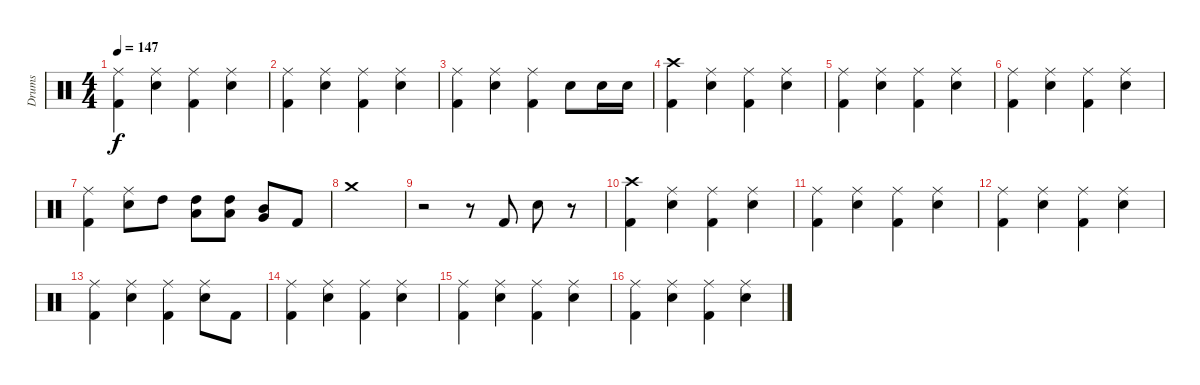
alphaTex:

\track ("Drums" "Drums") {instrument percussion}
\staff {score}
\articulation defaults
\ts (4 4)
\tempo 147
\clef neutral
\ks c
("Ride (middle)" "Kick (hit) 2").4{dy f} ("Ride (middle)" "Snare (hit) 2").4 ("Ride (middle)" "Kick (hit) 2").4 ("Ride (middle)" "Snare (hit) 2").4 |
("Ride (middle)" "Kick (hit) 2").4 ("Ride (middle)" "Snare (hit) 2").4 ("Ride (middle)" "Kick (hit) 2").4 ("Ride (middle)" "Snare (hit) 2").4 |
("Ride (middle)" "Kick (hit) 2").4 ("Ride (middle)" "Snare (hit) 2").4 ("Ride (middle)" "Kick (hit) 2").4 "Snare (hit) 2".8 "Snare (hit) 2".16 "Snare (hit) 2".16 |
("Crash high (hit)" "Kick (hit) 2").4 ("Ride (middle)" "Snare (hit) 2").4 ("Ride (middle)" "Kick (hit) 2").4 ("Ride (middle)" "Snare (hit) 2").4 |
("Ride (middle)" "Kick (hit) 2").4 ("Ride (middle)" "Snare (hit) 2").4 ("Ride (middle)" "Kick (hit) 2").4 ("Ride (middle)" "Snare (hit) 2").4 |
("Ride (middle)" "Kick (hit) 2").4 ("Ride (middle)" "Snare (hit) 2").4 ("Ride (middle)" "Kick (hit) 2").4 ("Ride (middle)" "Snare (hit) 2").4 |
("Ride (middle)" "Kick (hit) 2").4 ("Ride (middle)" "Snare (hit) 2").8 "High Tom (hit)".8 ("High Tom (hit)" "Low Tom (hit)").8 ("High Tom (hit)" "Low Tom (hit)").8 ("Mid Tom (hit)" "Very Low Tom (hit)").8 "Kick (hit) 2".8 |
"Crash medium (hit)".1 |
r.2 r.8 "Kick (hit) 2".8 "Snare (hit) 2".8 r.8 |
("Crash high (hit)" "Kick (hit) 2").4 ("Ride (middle)" "Snare (hit) 2").4 ("Ride (middle)" "Kick (hit) 2").4 ("Ride (middle)" "Snare (hit) 2").4 |
("Ride (middle)" "Kick (hit) 2").4 ("Ride (middle)" "Snare (hit) 2").4 ("Ride (middle)" "Kick (hit) 2").4 ("Ride (middle)" "Snare (hit) 2").4 |
("Ride (middle)" "Kick (hit) 2").4 ("Ride (middle)" "Snare (hit) 2").4 ("Ride (middle)" "Kick (hit) 2").4 ("Ride (middle)" "Snare (hit) 2").4 |
("Ride (middle)" "Kick (hit) 2").4 ("Ride (middle)" "Snare (hit) 2").4 ("Ride (middle)" "Kick (hit) 2").4 ("Ride (middle)" "Snare (hit) 2").8 "Kick (hit) 2".8 |
("Ride (middle)" "Kick (hit) 2").4 ("Ride (middle)" "Snare (hit) 2").4 ("Ride (middle)" "Kick (hit) 2").4 ("Ride (middle)" "Snare (hit) 2").4 |
("Ride (middle)" "Kick (hit) 2").4 ("Ride (middle)" "Snare (hit) 2").4 ("Ride (middle)" "Kick (hit) 2").4 ("Ride (middle)" "Snare (hit) 2").4 |
("Ride (middle)" "Kick (hit) 2").4 ("Ride (middle)" "Snare (hit) 2").4 ("Ride (middle)" "Kick (hit) 2").4 ("Ride (middle)" "Snare (hit) 2").4
